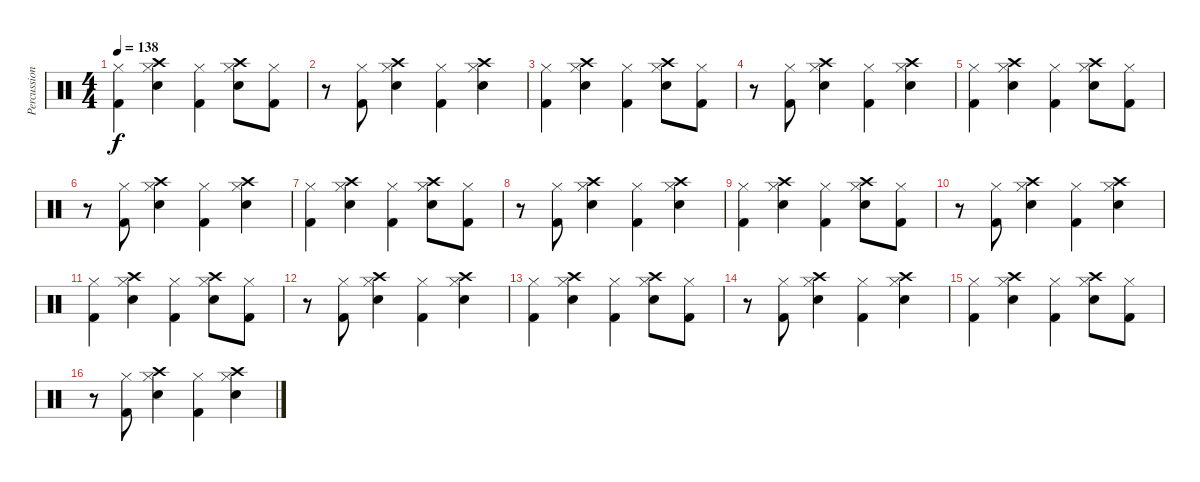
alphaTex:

\track ("Percussion" "Percussion") {instrument percussion}
\staff {score}
\articulation defaults
\ts (4 4)
\tempo 138
\clef neutral
\ks c
("Hi-Hat (closed)" "Kick (hit) 2").4{dy f} ("Hi-Hat (closed)" "Crash high (hit)" "Electric Snare (hit)").4 ("Hi-Hat (closed)" "Kick (hit) 2").4 ("Hi-Hat (closed)" "Crash high (hit)" "Electric Snare (hit)").8 ("Hi-Hat (closed)" "Kick (hit) 2").8 |
r.8 ("Hi-Hat (closed)" "Kick (hit) 2").8 ("Hi-Hat (closed)" "Crash high (hit)" "Electric Snare (hit)").4 ("Hi-Hat (closed)" "Kick (hit) 2").4 ("Hi-Hat (closed)" "Crash high (hit)" "Electric Snare (hit)").4 |
("Hi-Hat (closed)" "Kick (hit) 2").4 ("Hi-Hat (closed)" "Crash high (hit)" "Electric Snare (hit)").4 ("Hi-Hat (closed)" "Kick (hit) 2").4 ("Hi-Hat (closed)" "Crash high (hit)" "Electric Snare (hit)").8 ("Hi-Hat (closed)" "Kick (hit) 2").8 |
r.8 ("Hi-Hat (closed)" "Kick (hit) 2").8 ("Hi-Hat (closed)" "Crash high (hit)" "Electric Snare (hit)").4 ("Hi-Hat (closed)" "Kick (hit) 2").4 ("Hi-Hat (closed)" "Crash high (hit)" "Electric Snare (hit)").4 |
("Hi-Hat (closed)" "Kick (hit) 2").4 ("Hi-Hat (closed)" "Crash high (hit)" "Electric Snare (hit)").4 ("Hi-Hat (closed)" "Kick (hit) 2").4 ("Hi-Hat (closed)" "Crash high (hit)" "Electric Snare (hit)").8 ("Hi-Hat (closed)" "Kick (hit) 2").8 |
r.8 ("Hi-Hat (closed)" "Kick (hit) 2").8 ("Hi-Hat (closed)" "Crash high (hit)" "Electric Snare (hit)").4 ("Hi-Hat (closed)" "Kick (hit) 2").4 ("Hi-Hat (closed)" "Crash high (hit)" "Electric Snare (hit)").4 |
("Hi-Hat (closed)" "Kick (hit) 2").4 ("Hi-Hat (closed)" "Crash high (hit)" "Electric Snare (hit)").4 ("Hi-Hat (closed)" "Kick (hit) 2").4 ("Hi-Hat (closed)" "Crash high (hit)" "Electric Snare (hit)").8 ("Hi-Hat (closed)" "Kick (hit) 2").8 |
r.8 ("Hi-Hat (closed)" "Kick (hit) 2").8 ("Hi-Hat (closed)" "Crash high (hit)" "Electric Snare (hit)").4 ("Hi-Hat (closed)" "Kick (hit) 2").4 ("Hi-Hat (closed)" "Crash high (hit)" "Electric Snare (hit)").4 |
("Hi-Hat (closed)" "Kick (hit) 2").4 ("Hi-Hat (closed)" "Crash high (hit)" "Electric Snare (hit)").4 ("Hi-Hat (closed)" "Kick (hit) 2").4 ("Hi-Hat (closed)" "Crash high (hit)" "Electric Snare (hit)").8 ("Hi-Hat (closed)" "Kick (hit) 2").8 |
r.8 ("Hi-Hat (closed)" "Kick (hit) 2").8 ("Hi-Hat (closed)" "Crash high (hit)" "Electric Snare (hit)").4 ("Hi-Hat (closed)" "Kick (hit) 2").4 ("Hi-Hat (closed)" "Crash high (hit)" "Electric Snare (hit)").4 |
("Hi-Hat (closed)" "Kick (hit) 2").4 ("Hi-Hat (closed)" "Crash high (hit)" "Electric Snare (hit)").4 ("Hi-Hat (closed)" "Kick (hit) 2").4 ("Hi-Hat (closed)" "Crash high (hit)" "Electric Snare (hit)").8 ("Hi-Hat (closed)" "Kick (hit) 2").8 |
r.8 ("Hi-Hat (closed)" "Kick (hit) 2").8 ("Hi-Hat (closed)" "Crash high (hit)" "Electric Snare (hit)").4 ("Hi-Hat (closed)" "Kick (hit) 2").4 ("Hi-Hat (closed)" "Crash high (hit)" "Electric Snare (hit)").4 |
("Hi-Hat (closed)" "Kick (hit) 2").4 ("Hi-Hat (closed)" "Crash high (hit)" "Electric Snare (hit)").4 ("Hi-Hat (closed)" "Kick (hit) 2").4 ("Hi-Hat (closed)" "Crash high (hit)" "Electric Snare (hit)").8 ("Hi-Hat (closed)" "Kick (hit) 2").8 |
r.8 ("Hi-Hat (closed)" "Kick (hit) 2").8 ("Hi-Hat (closed)" "Crash high (hit)" "Electric Snare (hit)").4 ("Hi-Hat (closed)" "Kick (hit) 2").4 ("Hi-Hat (closed)" "Crash high (hit)" "Electric Snare (hit)").4 |
("Hi-Hat (closed)" "Kick (hit) 2").4 ("Hi-Hat (closed)" "Crash high (hit)" "Electric Snare (hit)").4 ("Hi-Hat (closed)" "Kick (hit) 2").4 ("Hi-Hat (closed)" "Crash high (hit)" "Electric Snare (hit)").8 ("Hi-Hat (closed)" "Kick (hit) 2").8 |
r.8 ("Hi-Hat (closed)" "Kick (hit) 2").8 ("Hi-Hat (closed)" "Crash high (hit)" "Electric Snare (hit)").4 ("Hi-Hat (closed)" "Kick (hit) 2").4 ("Hi-Hat (closed)" "Crash high (hit)" "Electric Snare (hit)").4
